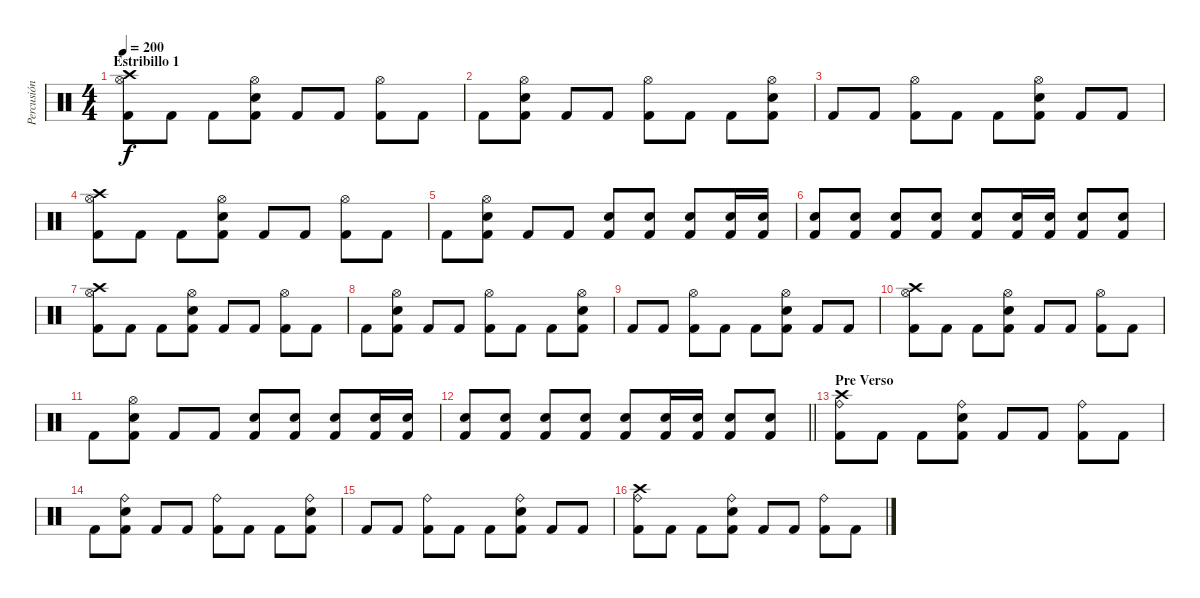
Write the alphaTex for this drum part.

\track ("Percusión" "Percusión") {instrument percussion}
\staff {score}
\articulation defaults
\ts (4 4)
\section ("" "Estribillo 1")
\tempo 200
\clef neutral
\ks c
("Hi-Hat (open)" "Crash high (hit)" "Kick (hit) 2").8{dy f} "Kick (hit) 2".8 "Kick (hit) 2".8 ("Hi-Hat (open)" "Snare (hit) 2" "Kick (hit) 2").8 "Kick (hit) 2".8 "Kick (hit) 2".8 ("Hi-Hat (open)" "Kick (hit) 2").8 "Kick (hit) 2".8 |
"Kick (hit) 2".8 ("Hi-Hat (open)" "Snare (hit) 2" "Kick (hit) 2").8 "Kick (hit) 2".8 "Kick (hit) 2".8 ("Hi-Hat (open)" "Kick (hit) 2").8 "Kick (hit) 2".8 "Kick (hit) 2".8 ("Hi-Hat (open)" "Snare (hit) 2" "Kick (hit) 2").8 |
"Kick (hit) 2".8 "Kick (hit) 2".8 ("Hi-Hat (open)" "Kick (hit) 2").8 "Kick (hit) 2".8 "Kick (hit) 2".8 ("Hi-Hat (open)" "Snare (hit) 2" "Kick (hit) 2").8 "Kick (hit) 2".8 "Kick (hit) 2".8 |
("Hi-Hat (open)" "Crash high (hit)" "Kick (hit) 2").8 "Kick (hit) 2".8 "Kick (hit) 2".8 ("Hi-Hat (open)" "Snare (hit) 2" "Kick (hit) 2").8 "Kick (hit) 2".8 "Kick (hit) 2".8 ("Hi-Hat (open)" "Kick (hit) 2").8 "Kick (hit) 2".8 |
"Kick (hit) 2".8 ("Hi-Hat (open)" "Snare (hit) 2" "Kick (hit) 2").8 "Kick (hit) 2".8 "Kick (hit) 2".8 ("Snare (hit) 2" "Kick (hit) 2").8 ("Snare (hit) 2" "Kick (hit) 2").8 ("Snare (hit) 2" "Kick (hit) 2").8 ("Snare (hit) 2" "Kick (hit) 2").16 ("Snare (hit) 2" "Kick (hit) 2").16 |
("Snare (hit) 2" "Kick (hit) 2").8 ("Snare (hit) 2" "Kick (hit) 2").8 ("Snare (hit) 2" "Kick (hit) 2").8 ("Snare (hit) 2" "Kick (hit) 2").8 ("Snare (hit) 2" "Kick (hit) 2").8 ("Snare (hit) 2" "Kick (hit) 2").16 ("Snare (hit) 2" "Kick (hit) 2").16 ("Snare (hit) 2" "Kick (hit) 2").8 ("Snare (hit) 2" "Kick (hit) 2").8 |
("Hi-Hat (open)" "Crash high (hit)" "Kick (hit) 2").8 "Kick (hit) 2".8 "Kick (hit) 2".8 ("Hi-Hat (open)" "Snare (hit) 2" "Kick (hit) 2").8 "Kick (hit) 2".8 "Kick (hit) 2".8 ("Hi-Hat (open)" "Kick (hit) 2").8 "Kick (hit) 2".8 |
"Kick (hit) 2".8 ("Hi-Hat (open)" "Snare (hit) 2" "Kick (hit) 2").8 "Kick (hit) 2".8 "Kick (hit) 2".8 ("Hi-Hat (open)" "Kick (hit) 2").8 "Kick (hit) 2".8 "Kick (hit) 2".8 ("Hi-Hat (open)" "Snare (hit) 2" "Kick (hit) 2").8 |
"Kick (hit) 2".8 "Kick (hit) 2".8 ("Hi-Hat (open)" "Kick (hit) 2").8 "Kick (hit) 2".8 "Kick (hit) 2".8 ("Hi-Hat (open)" "Snare (hit) 2" "Kick (hit) 2").8 "Kick (hit) 2".8 "Kick (hit) 2".8 |
("Hi-Hat (open)" "Crash high (hit)" "Kick (hit) 2").8 "Kick (hit) 2".8 "Kick (hit) 2".8 ("Hi-Hat (open)" "Snare (hit) 2" "Kick (hit) 2").8 "Kick (hit) 2".8 "Kick (hit) 2".8 ("Hi-Hat (open)" "Kick (hit) 2").8 "Kick (hit) 2".8 |
"Kick (hit) 2".8 ("Hi-Hat (open)" "Snare (hit) 2" "Kick (hit) 2").8 "Kick (hit) 2".8 "Kick (hit) 2".8 ("Snare (hit) 2" "Kick (hit) 2").8 ("Snare (hit) 2" "Kick (hit) 2").8 ("Snare (hit) 2" "Kick (hit) 2").8 ("Snare (hit) 2" "Kick (hit) 2").16 ("Snare (hit) 2" "Kick (hit) 2").16 |
\barLineRight lightlight
("Snare (hit) 2" "Kick (hit) 2").8 ("Snare (hit) 2" "Kick (hit) 2").8 ("Snare (hit) 2" "Kick (hit) 2").8 ("Snare (hit) 2" "Kick (hit) 2").8 ("Snare (hit) 2" "Kick (hit) 2").8 ("Snare (hit) 2" "Kick (hit) 2").16 ("Snare (hit) 2" "Kick (hit) 2").16 ("Snare (hit) 2" "Kick (hit) 2").8 ("Snare (hit) 2" "Kick (hit) 2").8 |
\section ("" "Pre Verso")
("Ride (bell)" "Crash high (hit)" "Kick (hit) 2").8 "Kick (hit) 2".8 "Kick (hit) 2".8 ("Ride (bell)" "Snare (hit) 2" "Kick (hit) 2").8 "Kick (hit) 2".8 "Kick (hit) 2".8 ("Ride (bell)" "Kick (hit) 2").8 "Kick (hit) 2".8 |
"Kick (hit) 2".8 ("Ride (bell)" "Snare (hit) 2" "Kick (hit) 2").8 "Kick (hit) 2".8 "Kick (hit) 2".8 ("Ride (bell)" "Kick (hit) 2").8 "Kick (hit) 2".8 "Kick (hit) 2".8 ("Ride (bell)" "Snare (hit) 2" "Kick (hit) 2").8 |
"Kick (hit) 2".8 "Kick (hit) 2".8 ("Ride (bell)" "Kick (hit) 2").8 "Kick (hit) 2".8 "Kick (hit) 2".8 ("Ride (bell)" "Snare (hit) 2" "Kick (hit) 2").8 "Kick (hit) 2".8 "Kick (hit) 2".8 |
("Ride (bell)" "Crash high (hit)" "Kick (hit) 2").8 "Kick (hit) 2".8 "Kick (hit) 2".8 ("Ride (bell)" "Snare (hit) 2" "Kick (hit) 2").8 "Kick (hit) 2".8 "Kick (hit) 2".8 ("Ride (bell)" "Kick (hit) 2").8 "Kick (hit) 2".8
